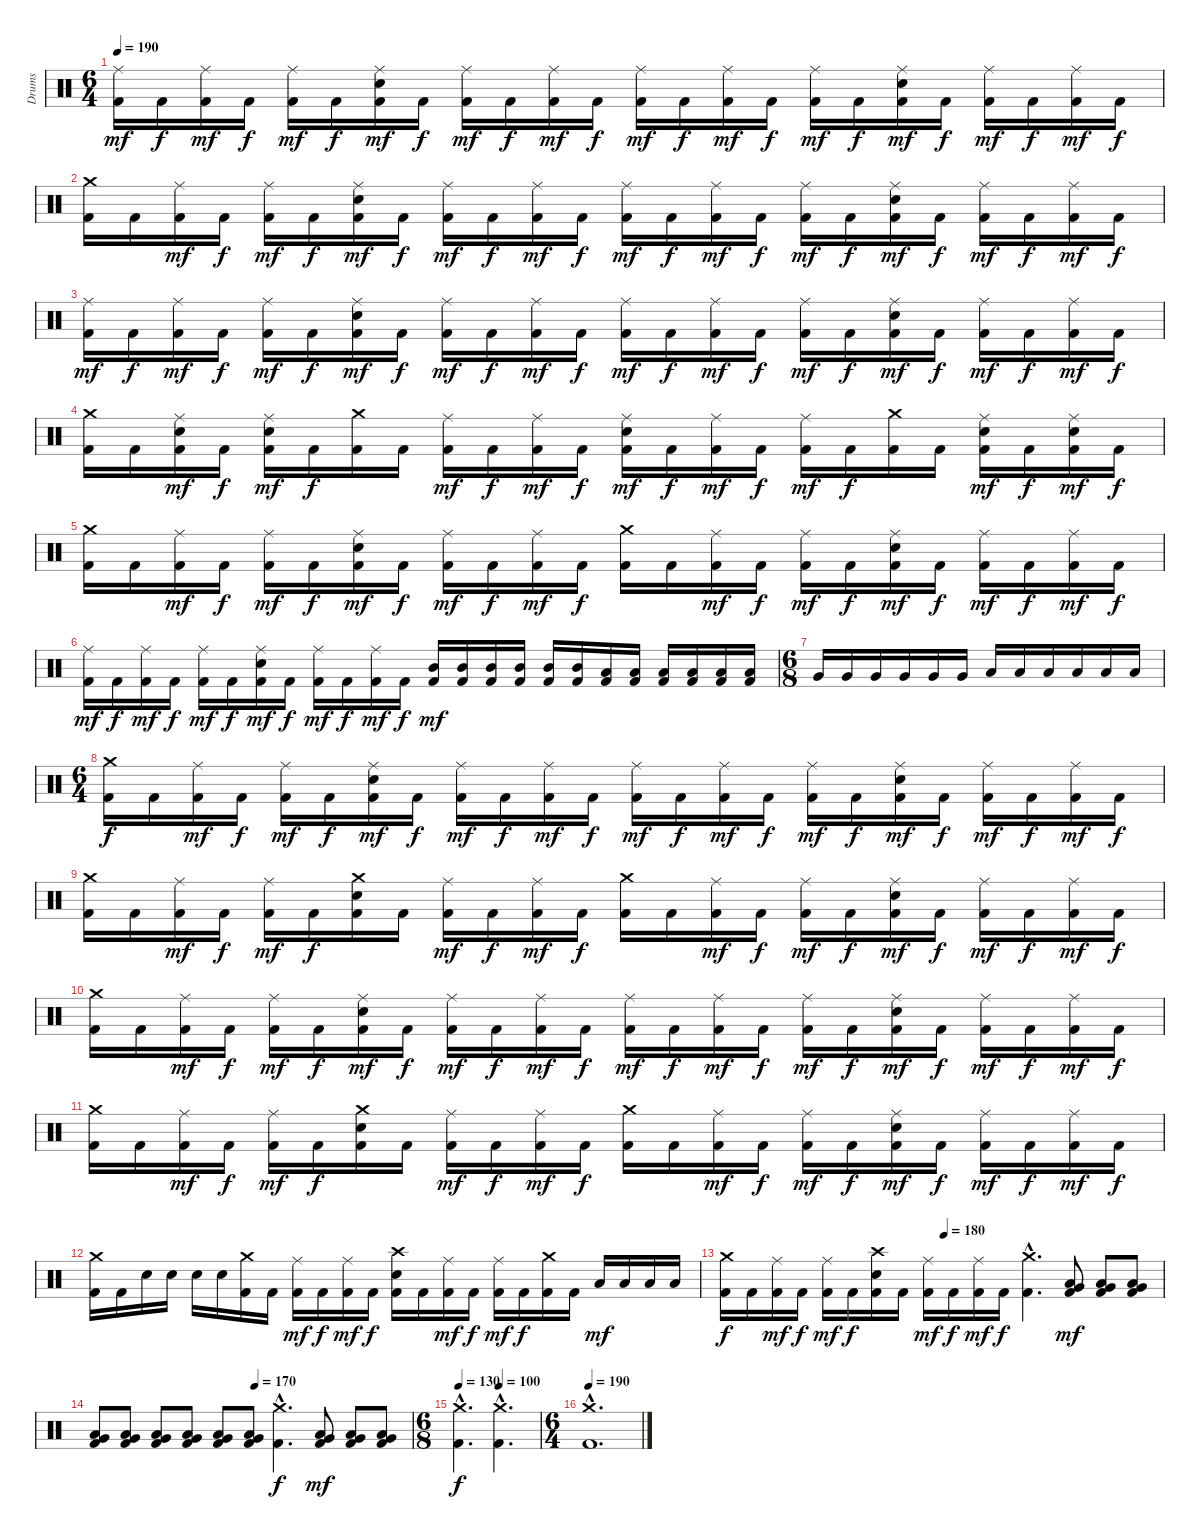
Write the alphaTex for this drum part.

\track ("Drums" "Drums") {instrument percussion}
\staff {score}
\articulation defaults
\ts (6 4)
\tempo 190
\clef neutral
\ks c
("Ride (middle)" "Kick (hit) 2").16{dy mf} "Kick (hit) 2".16{dy f} ("Ride (middle)" "Kick (hit) 2").16{dy mf} "Kick (hit) 2".16{dy f} ("Ride (middle)" "Kick (hit) 2").16{dy mf} "Kick (hit) 2".16{dy f} ("Ride (middle)" "Snare (hit) 2" "Kick (hit) 2").16{dy mf} "Kick (hit) 2".16{dy f} ("Ride (middle)" "Kick (hit) 2").16{dy mf} "Kick (hit) 2".16{dy f} ("Ride (middle)" "Kick (hit) 2").16{dy mf} "Kick (hit) 2".16{dy f} ("Ride (middle)" "Kick (hit) 2").16{dy mf} "Kick (hit) 2".16{dy f} ("Ride (middle)" "Kick (hit) 2").16{dy mf} "Kick (hit) 2".16{dy f} ("Ride (middle)" "Kick (hit) 2").16{dy mf} "Kick (hit) 2".16{dy f} ("Ride (middle)" "Snare (hit) 2" "Kick (hit) 2").16{dy mf} "Kick (hit) 2".16{dy f} ("Ride (middle)" "Kick (hit) 2").16{dy mf} "Kick (hit) 2".16{dy f} ("Ride (middle)" "Kick (hit) 2").16{dy mf} "Kick (hit) 2".16{dy f} |
("Crash medium (hit)" "Kick (hit) 2").16 "Kick (hit) 2".16 ("Ride (middle)" "Kick (hit) 2").16{dy mf} "Kick (hit) 2".16{dy f} ("Ride (middle)" "Kick (hit) 2").16{dy mf} "Kick (hit) 2".16{dy f} ("Ride (middle)" "Snare (hit) 2" "Kick (hit) 2").16{dy mf} "Kick (hit) 2".16{dy f} ("Ride (middle)" "Kick (hit) 2").16{dy mf} "Kick (hit) 2".16{dy f} ("Ride (middle)" "Kick (hit) 2").16{dy mf} "Kick (hit) 2".16{dy f} ("Ride (middle)" "Kick (hit) 2").16{dy mf} "Kick (hit) 2".16{dy f} ("Ride (middle)" "Kick (hit) 2").16{dy mf} "Kick (hit) 2".16{dy f} ("Ride (middle)" "Kick (hit) 2").16{dy mf} "Kick (hit) 2".16{dy f} ("Ride (middle)" "Snare (hit) 2" "Kick (hit) 2").16{dy mf} "Kick (hit) 2".16{dy f} ("Ride (middle)" "Kick (hit) 2").16{dy mf} "Kick (hit) 2".16{dy f} ("Ride (middle)" "Kick (hit) 2").16{dy mf} "Kick (hit) 2".16{dy f} |
("Ride (middle)" "Kick (hit) 2").16{dy mf} "Kick (hit) 2".16{dy f} ("Ride (middle)" "Kick (hit) 2").16{dy mf} "Kick (hit) 2".16{dy f} ("Ride (middle)" "Kick (hit) 2").16{dy mf} "Kick (hit) 2".16{dy f} ("Ride (middle)" "Snare (hit) 2" "Kick (hit) 2").16{dy mf} "Kick (hit) 2".16{dy f} ("Ride (middle)" "Kick (hit) 2").16{dy mf} "Kick (hit) 2".16{dy f} ("Ride (middle)" "Kick (hit) 2").16{dy mf} "Kick (hit) 2".16{dy f} ("Ride (middle)" "Kick (hit) 2").16{dy mf} "Kick (hit) 2".16{dy f} ("Ride (middle)" "Kick (hit) 2").16{dy mf} "Kick (hit) 2".16{dy f} ("Ride (middle)" "Kick (hit) 2").16{dy mf} "Kick (hit) 2".16{dy f} ("Ride (middle)" "Snare (hit) 2" "Kick (hit) 2").16{dy mf} "Kick (hit) 2".16{dy f} ("Ride (middle)" "Kick (hit) 2").16{dy mf} "Kick (hit) 2".16{dy f} ("Ride (middle)" "Kick (hit) 2").16{dy mf} "Kick (hit) 2".16{dy f} |
("Crash medium (hit)" "Kick (hit) 2").16 "Kick (hit) 2".16 ("Ride (middle)" "Snare (hit) 2" "Kick (hit) 2").16{dy mf} "Kick (hit) 2".16{dy f} ("Ride (middle)" "Snare (hit) 2" "Kick (hit) 2").16{dy mf} "Kick (hit) 2".16{dy f} ("Crash medium (hit)" "Kick (hit) 2").16 "Kick (hit) 2".16 ("Ride (middle)" "Kick (hit) 2").16{dy mf} "Kick (hit) 2".16{dy f} ("Ride (middle)" "Kick (hit) 2").16{dy mf} "Kick (hit) 2".16{dy f} ("Ride (middle)" "Snare (hit) 2" "Kick (hit) 2").16{dy mf} "Kick (hit) 2".16{dy f} ("Ride (middle)" "Kick (hit) 2").16{dy mf} "Kick (hit) 2".16{dy f} ("Ride (middle)" "Kick (hit) 2").16{dy mf} "Kick (hit) 2".16{dy f} ("Crash medium (hit)" "Kick (hit) 2").16 "Kick (hit) 2".16 ("Ride (middle)" "Snare (hit) 2" "Kick (hit) 2").16{dy mf} "Kick (hit) 2".16{dy f} ("Ride (middle)" "Snare (hit) 2" "Kick (hit) 2").16{dy mf} "Kick (hit) 2".16{dy f} |
("Crash medium (hit)" "Kick (hit) 2").16 "Kick (hit) 2".16 ("Ride (middle)" "Kick (hit) 2").16{dy mf} "Kick (hit) 2".16{dy f} ("Ride (middle)" "Kick (hit) 2").16{dy mf} "Kick (hit) 2".16{dy f} ("Ride (middle)" "Snare (hit) 2" "Kick (hit) 2").16{dy mf} "Kick (hit) 2".16{dy f} ("Ride (middle)" "Kick (hit) 2").16{dy mf} "Kick (hit) 2".16{dy f} ("Ride (middle)" "Kick (hit) 2").16{dy mf} "Kick (hit) 2".16{dy f} ("Crash medium (hit)" "Kick (hit) 2").16 "Kick (hit) 2".16 ("Ride (middle)" "Kick (hit) 2").16{dy mf} "Kick (hit) 2".16{dy f} ("Ride (middle)" "Kick (hit) 2").16{dy mf} "Kick (hit) 2".16{dy f} ("Ride (middle)" "Snare (hit) 2" "Kick (hit) 2").16{dy mf} "Kick (hit) 2".16{dy f} ("Ride (middle)" "Kick (hit) 2").16{dy mf} "Kick (hit) 2".16{dy f} ("Ride (middle)" "Kick (hit) 2").16{dy mf} "Kick (hit) 2".16{dy f} |
("Ride (middle)" "Kick (hit) 2").16{dy mf} "Kick (hit) 2".16{dy f} ("Ride (middle)" "Kick (hit) 2").16{dy mf} "Kick (hit) 2".16{dy f} ("Ride (middle)" "Kick (hit) 2").16{dy mf} "Kick (hit) 2".16{dy f} ("Ride (middle)" "Snare (hit) 2" "Kick (hit) 2").16{dy mf} "Kick (hit) 2".16{dy f} ("Ride (middle)" "Kick (hit) 2").16{dy mf} "Kick (hit) 2".16{dy f} ("Ride (middle)" "Kick (hit) 2").16{dy mf} "Kick (hit) 2".16{dy f} ("Mid Tom (hit)" "Kick (hit) 2").16{dy mf} ("Mid Tom (hit)" "Kick (hit) 2").16 ("Mid Tom (hit)" "Kick (hit) 2").16 ("Mid Tom (hit)" "Kick (hit) 2").16 ("Mid Tom (hit)" "Kick (hit) 2").16 ("Mid Tom (hit)" "Kick (hit) 2").16 ("Low Tom (hit)" "Kick (hit) 2").16 ("Low Tom (hit)" "Kick (hit) 2").16 ("Low Tom (hit)" "Kick (hit) 2").16 ("Low Tom (hit)" "Kick (hit) 2").16 ("Low Tom (hit)" "Kick (hit) 2").16 ("Low Tom (hit)" "Kick (hit) 2").16 |
\ts (6 8)
"Very Low Tom (hit)".16 "Very Low Tom (hit)".16 "Very Low Tom (hit)".16 "Very Low Tom (hit)".16 "Very Low Tom (hit)".16 "Very Low Tom (hit)".16 "Low Floor Tom (hit)".16 "Low Floor Tom (hit)".16 "Low Floor Tom (hit)".16 "Low Floor Tom (hit)".16 "Low Floor Tom (hit)".16 "Low Floor Tom (hit)".16 |
\ts (6 4)
("Crash medium (hit)" "Kick (hit) 2").16{dy f} "Kick (hit) 2".16 ("Ride (middle)" "Kick (hit) 2").16{dy mf} "Kick (hit) 2".16{dy f} ("Ride (middle)" "Kick (hit) 2").16{dy mf} "Kick (hit) 2".16{dy f} ("Ride (middle)" "Snare (hit) 2" "Kick (hit) 2").16{dy mf} "Kick (hit) 2".16{dy f} ("Ride (middle)" "Kick (hit) 2").16{dy mf} "Kick (hit) 2".16{dy f} ("Ride (middle)" "Kick (hit) 2").16{dy mf} "Kick (hit) 2".16{dy f} ("Ride (middle)" "Kick (hit) 2").16{dy mf} "Kick (hit) 2".16{dy f} ("Ride (middle)" "Kick (hit) 2").16{dy mf} "Kick (hit) 2".16{dy f} ("Ride (middle)" "Kick (hit) 2").16{dy mf} "Kick (hit) 2".16{dy f} ("Ride (middle)" "Snare (hit) 2" "Kick (hit) 2").16{dy mf} "Kick (hit) 2".16{dy f} ("Ride (middle)" "Kick (hit) 2").16{dy mf} "Kick (hit) 2".16{dy f} ("Ride (middle)" "Kick (hit) 2").16{dy mf} "Kick (hit) 2".16{dy f} |
("Crash medium (hit)" "Kick (hit) 2").16 "Kick (hit) 2".16 ("Ride (middle)" "Kick (hit) 2").16{dy mf} "Kick (hit) 2".16{dy f} ("Ride (middle)" "Kick (hit) 2").16{dy mf} "Kick (hit) 2".16{dy f} ("Crash medium (hit)" "Snare (hit) 2" "Kick (hit) 2").16 "Kick (hit) 2".16 ("Ride (middle)" "Kick (hit) 2").16{dy mf} "Kick (hit) 2".16{dy f} ("Ride (middle)" "Kick (hit) 2").16{dy mf} "Kick (hit) 2".16{dy f} ("Crash medium (hit)" "Kick (hit) 2").16 "Kick (hit) 2".16 ("Ride (middle)" "Kick (hit) 2").16{dy mf} "Kick (hit) 2".16{dy f} ("Ride (middle)" "Kick (hit) 2").16{dy mf} "Kick (hit) 2".16{dy f} ("Ride (middle)" "Snare (hit) 2" "Kick (hit) 2").16{dy mf} "Kick (hit) 2".16{dy f} ("Ride (middle)" "Kick (hit) 2").16{dy mf} "Kick (hit) 2".16{dy f} ("Ride (middle)" "Kick (hit) 2").16{dy mf} "Kick (hit) 2".16{dy f} |
("Crash medium (hit)" "Kick (hit) 2").16 "Kick (hit) 2".16 ("Ride (middle)" "Kick (hit) 2").16{dy mf} "Kick (hit) 2".16{dy f} ("Ride (middle)" "Kick (hit) 2").16{dy mf} "Kick (hit) 2".16{dy f} ("Ride (middle)" "Snare (hit) 2" "Kick (hit) 2").16{dy mf} "Kick (hit) 2".16{dy f} ("Ride (middle)" "Kick (hit) 2").16{dy mf} "Kick (hit) 2".16{dy f} ("Ride (middle)" "Kick (hit) 2").16{dy mf} "Kick (hit) 2".16{dy f} ("Ride (middle)" "Kick (hit) 2").16{dy mf} "Kick (hit) 2".16{dy f} ("Ride (middle)" "Kick (hit) 2").16{dy mf} "Kick (hit) 2".16{dy f} ("Ride (middle)" "Kick (hit) 2").16{dy mf} "Kick (hit) 2".16{dy f} ("Ride (middle)" "Snare (hit) 2" "Kick (hit) 2").16{dy mf} "Kick (hit) 2".16{dy f} ("Ride (middle)" "Kick (hit) 2").16{dy mf} "Kick (hit) 2".16{dy f} ("Ride (middle)" "Kick (hit) 2").16{dy mf} "Kick (hit) 2".16{dy f} |
("Crash medium (hit)" "Kick (hit) 2").16 "Kick (hit) 2".16 ("Ride (middle)" "Kick (hit) 2").16{dy mf} "Kick (hit) 2".16{dy f} ("Ride (middle)" "Kick (hit) 2").16{dy mf} "Kick (hit) 2".16{dy f} ("Crash medium (hit)" "Snare (hit) 2" "Kick (hit) 2").16 "Kick (hit) 2".16 ("Ride (middle)" "Kick (hit) 2").16{dy mf} "Kick (hit) 2".16{dy f} ("Ride (middle)" "Kick (hit) 2").16{dy mf} "Kick (hit) 2".16{dy f} ("Crash medium (hit)" "Kick (hit) 2").16 "Kick (hit) 2".16 ("Ride (middle)" "Kick (hit) 2").16{dy mf} "Kick (hit) 2".16{dy f} ("Ride (middle)" "Kick (hit) 2").16{dy mf} "Kick (hit) 2".16{dy f} ("Ride (middle)" "Snare (hit) 2" "Kick (hit) 2").16{dy mf} "Kick (hit) 2".16{dy f} ("Ride (middle)" "Kick (hit) 2").16{dy mf} "Kick (hit) 2".16{dy f} ("Ride (middle)" "Kick (hit) 2").16{dy mf} "Kick (hit) 2".16{dy f} |
("Crash medium (hit)" "Kick (hit) 2").16 "Kick (hit) 2".16 "Snare (hit) 2".16 "Snare (hit) 2".16 "Snare (hit) 2".16 "Snare (hit) 2".16 ("Crash medium (hit)" "Kick (hit) 2").16 "Kick (hit) 2".16 ("Ride (middle)" "Kick (hit) 2").16{dy mf} "Kick (hit) 2".16{dy f} ("Ride (middle)" "Kick (hit) 2").16{dy mf} "Kick (hit) 2".16{dy f} ("Crash high (hit)" "Snare (hit) 2" "Kick (hit) 2").16 "Kick (hit) 2".16 ("Ride (middle)" "Kick (hit) 2").16{dy mf} "Kick (hit) 2".16{dy f} ("Ride (middle)" "Kick (hit) 2").16{dy mf} "Kick (hit) 2".16{dy f} ("Crash medium (hit)" "Kick (hit) 2").16 "Kick (hit) 2".16 "Low Tom (hit)".16{dy mf} "Low Tom (hit)".16 "Low Tom (hit)".16 "Low Tom (hit)".16 |
\tempo (180 0.5)
("Crash medium (hit)" "Kick (hit) 2").16{dy f} "Kick (hit) 2".16 ("Ride (middle)" "Kick (hit) 2").16{dy mf} "Kick (hit) 2".16{dy f} ("Ride (middle)" "Kick (hit) 2").16{dy mf} "Kick (hit) 2".16{dy f} ("Crash high (hit)" "Snare (hit) 2" "Kick (hit) 2").16 "Kick (hit) 2".16 ("Ride (middle)" "Kick (hit) 2").16{dy mf} "Kick (hit) 2".16{dy f} ("Ride (middle)" "Kick (hit) 2").16{dy mf} "Kick (hit) 2".16{dy f} ("Crash medium (hit)"{hac} "Kick (hit) 2"{hac}).4{d} ("Very Low Tom (hit)" "Low Floor Tom (hit)" "Kick (hit) 2").8{dy mf} ("Very Low Tom (hit)" "Low Floor Tom (hit)" "Kick (hit) 2").8 ("Very Low Tom (hit)" "Low Floor Tom (hit)" "Kick (hit) 2").8 |
\tempo (170 0.5)
("Very Low Tom (hit)" "Low Floor Tom (hit)" "Kick (hit) 2").8 ("Very Low Tom (hit)" "Low Floor Tom (hit)" "Kick (hit) 2").8 ("Very Low Tom (hit)" "Low Floor Tom (hit)" "Kick (hit) 2").8 ("Very Low Tom (hit)" "Low Floor Tom (hit)" "Kick (hit) 2").8 ("Very Low Tom (hit)" "Low Floor Tom (hit)" "Kick (hit) 2").8 ("Very Low Tom (hit)" "Low Floor Tom (hit)" "Kick (hit) 2").8 ("Crash medium (hit)"{hac} "Kick (hit) 2"{hac}).4{d dy f} ("Very Low Tom (hit)" "Low Floor Tom (hit)" "Kick (hit) 2").8{dy mf} ("Very Low Tom (hit)" "Low Floor Tom (hit)" "Kick (hit) 2").8 ("Very Low Tom (hit)" "Low Floor Tom (hit)" "Kick (hit) 2").8 |
\ts (6 8)
\tempo 130
\tempo (100 0.5)
("Crash medium (hit)"{hac} "Kick (hit) 2"{hac}).4{d dy f} ("Crash medium (hit)"{hac} "Kick (hit) 2"{hac}).4{d} |
\ts (6 4)
\tempo 190
("Crash medium (hit)"{hac} "Kick (hit) 2"{hac}).1{d}
